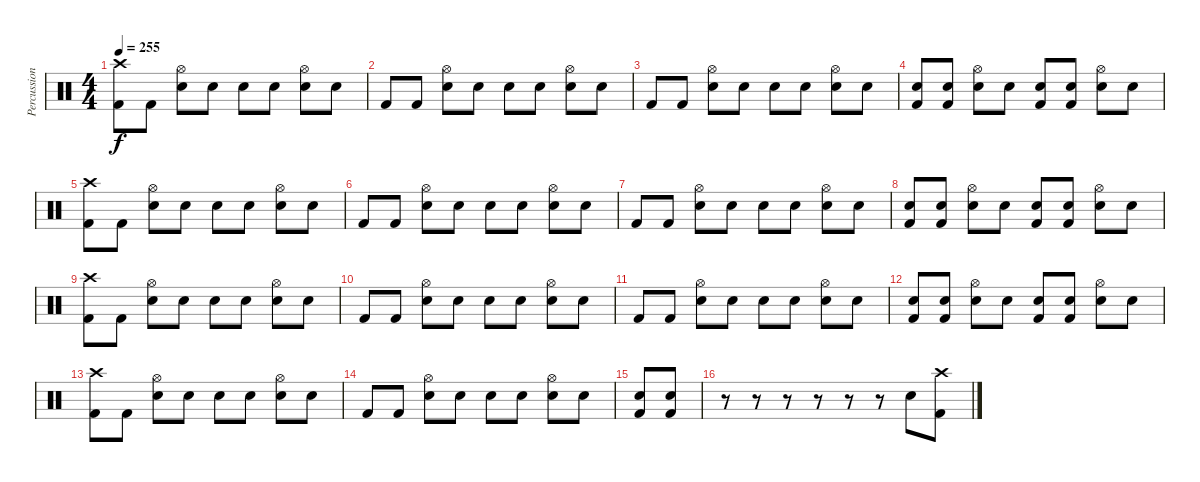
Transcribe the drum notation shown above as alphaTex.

\track ("Percussion" "Percussion") {instrument percussion}
\staff {score}
\articulation defaults
\ts (4 4)
\tempo 255
\clef neutral
\ks c
("Kick (hit) 2" "Crash high (hit)").8{dy f} "Kick (hit) 2".8 ("Snare (hit) 2" "Hi-Hat (open)").8 "Snare (hit)"{x}.8 "Snare (hit)"{x}.8 "Snare (hit)"{x}.8 ("Snare (hit) 2" "Hi-Hat (open)").8 "Snare (hit)"{x}.8 |
"Kick (hit) 2".8 "Kick (hit) 2".8 ("Snare (hit) 2" "Hi-Hat (open)").8 "Snare (hit)"{x}.8 "Snare (hit)"{x}.8 "Snare (hit)"{x}.8 ("Snare (hit) 2" "Hi-Hat (open)").8 "Snare (hit)"{x}.8 |
"Kick (hit) 2".8 "Kick (hit) 2".8 ("Snare (hit) 2" "Hi-Hat (open)").8 "Snare (hit)"{x}.8 "Snare (hit)"{x}.8 "Snare (hit)"{x}.8 ("Snare (hit) 2" "Hi-Hat (open)").8 "Snare (hit)"{x}.8 |
("Kick (hit) 2" "Snare (hit)"{x}).8 ("Kick (hit) 2" "Snare (hit)"{x}).8 ("Snare (hit) 2" "Hi-Hat (open)").8 "Snare (hit)"{x}.8 ("Kick (hit) 2" "Snare (hit)"{x}).8 ("Kick (hit) 2" "Snare (hit)"{x}).8 ("Snare (hit) 2" "Hi-Hat (open)").8 "Snare (hit)"{x}.8 |
("Kick (hit) 2" "Crash high (hit)"{x}).8 "Kick (hit) 2".8 ("Snare (hit) 2" "Hi-Hat (open)").8 "Snare (hit)"{x}.8 "Snare (hit)"{x}.8 "Snare (hit)"{x}.8 ("Snare (hit) 2" "Hi-Hat (open)").8 "Snare (hit)"{x}.8 |
"Kick (hit) 2".8 "Kick (hit) 2".8 ("Snare (hit) 2" "Hi-Hat (open)").8 "Snare (hit)"{x}.8 "Snare (hit)"{x}.8 "Snare (hit)"{x}.8 ("Snare (hit) 2" "Hi-Hat (open)").8 "Snare (hit)"{x}.8 |
"Kick (hit) 2".8 "Kick (hit) 2".8 ("Snare (hit) 2" "Hi-Hat (open)").8 "Snare (hit)"{x}.8 "Snare (hit)"{x}.8 "Snare (hit)"{x}.8 ("Snare (hit) 2" "Hi-Hat (open)").8 "Snare (hit)"{x}.8 |
("Kick (hit) 2" "Snare (hit)"{x}).8 ("Kick (hit) 2" "Snare (hit)"{x}).8 ("Snare (hit) 2" "Hi-Hat (open)").8 "Snare (hit)"{x}.8 ("Kick (hit) 2" "Snare (hit)"{x}).8 ("Kick (hit) 2" "Snare (hit)"{x}).8 ("Snare (hit) 2" "Hi-Hat (open)").8 "Snare (hit)"{x}.8 |
("Kick (hit) 2" "Crash high (hit)"{x}).8 "Kick (hit) 2".8 ("Snare (hit) 2" "Hi-Hat (open)").8 "Snare (hit)"{x}.8 "Snare (hit)"{x}.8 "Snare (hit)"{x}.8 ("Snare (hit) 2" "Hi-Hat (open)").8 "Snare (hit)"{x}.8 |
"Kick (hit) 2".8 "Kick (hit) 2".8 ("Snare (hit) 2" "Hi-Hat (open)").8 "Snare (hit)"{x}.8 "Snare (hit)"{x}.8 "Snare (hit)"{x}.8 ("Snare (hit) 2" "Hi-Hat (open)").8 "Snare (hit)"{x}.8 |
"Kick (hit) 2".8 "Kick (hit) 2".8 ("Snare (hit) 2" "Hi-Hat (open)").8 "Snare (hit)"{x}.8 "Snare (hit)"{x}.8 "Snare (hit)"{x}.8 ("Snare (hit) 2" "Hi-Hat (open)").8 "Snare (hit)"{x}.8 |
("Kick (hit) 2" "Snare (hit)"{x}).8 ("Kick (hit) 2" "Snare (hit)"{x}).8 ("Snare (hit) 2" "Hi-Hat (open)").8 "Snare (hit)"{x}.8 ("Kick (hit) 2" "Snare (hit)"{x}).8 ("Kick (hit) 2" "Snare (hit)"{x}).8 ("Snare (hit) 2" "Hi-Hat (open)").8 "Snare (hit)"{x}.8 |
("Kick (hit) 2" "Crash high (hit)"{x}).8 "Kick (hit) 2".8 ("Snare (hit) 2" "Hi-Hat (open)").8 "Snare (hit)"{x}.8 "Snare (hit)"{x}.8 "Snare (hit)"{x}.8 ("Snare (hit) 2" "Hi-Hat (open)").8 "Snare (hit)"{x}.8 |
"Kick (hit) 2".8 "Kick (hit) 2".8 ("Snare (hit) 2" "Hi-Hat (open)").8 "Snare (hit)"{x}.8 "Snare (hit)"{x}.8 "Snare (hit)"{x}.8 ("Snare (hit) 2" "Hi-Hat (open)").8 "Snare (hit)"{x}.8 |
("Kick (hit) 2" "Snare (hit) 2").8 ("Kick (hit) 2" "Snare (hit) 2").8 |
r.8 r.8 r.8 r.8 r.8 r.8 "Snare (hit) 2".8 ("Kick (hit) 2" "Crash high (hit)").8
